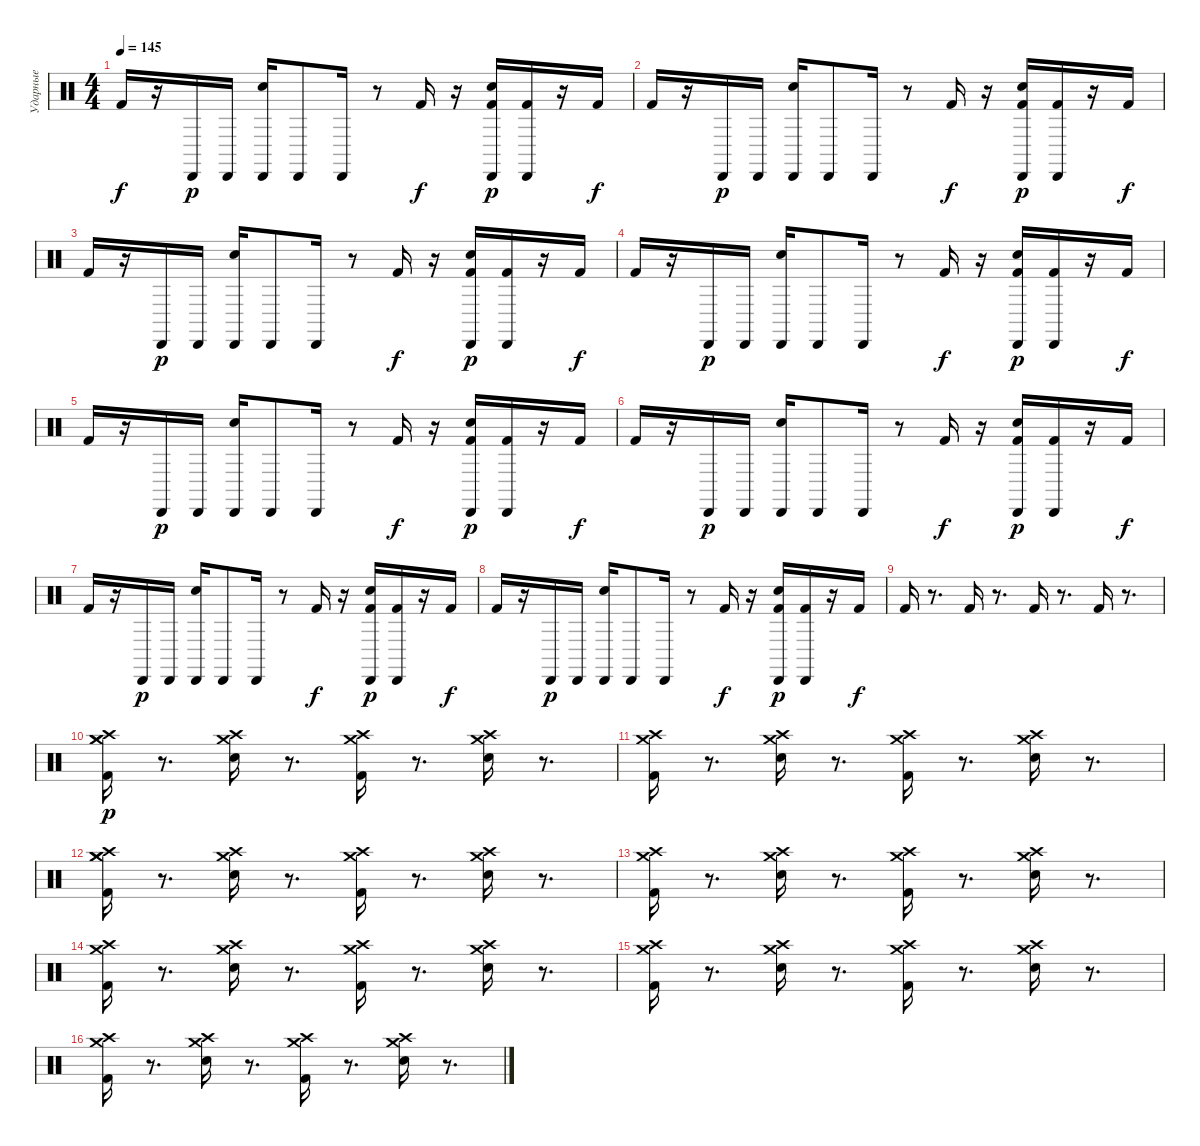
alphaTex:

\track ("Ударные" "Ударные") {instrument percussion}
\staff {score}
\articulation defaults
\ts (4 4)
\tempo 145
\clef neutral
\ks c "Kick (hit) 2".16{dy f}
r.16 "Cabasa (hit)".16{dy p} "Cabasa (hit)".16 ("Electric Snare (hit)" "Cabasa (hit)").16 "Cabasa (hit)".8 "Cabasa (hit)".16 r.8 "Kick (hit) 2".16{dy f} r.16 ("Kick (hit) 2" "Electric Snare (hit)" "Cabasa (hit)").16{dy p} ("Kick (hit) 2" "Cabasa (hit)").16 r.16 "Kick (hit) 2".16{dy f} |
"Kick (hit) 2".16 r.16 "Cabasa (hit)".16{dy p} "Cabasa (hit)".16 ("Electric Snare (hit)" "Cabasa (hit)").16 "Cabasa (hit)".8 "Cabasa (hit)".16 r.8 "Kick (hit) 2".16{dy f} r.16 ("Kick (hit) 2" "Electric Snare (hit)" "Cabasa (hit)").16{dy p} ("Kick (hit) 2" "Cabasa (hit)").16 r.16 "Kick (hit) 2".16{dy f} |
"Kick (hit) 2".16 r.16 "Cabasa (hit)".16{dy p} "Cabasa (hit)".16 ("Electric Snare (hit)" "Cabasa (hit)").16 "Cabasa (hit)".8 "Cabasa (hit)".16 r.8 "Kick (hit) 2".16{dy f} r.16 ("Kick (hit) 2" "Electric Snare (hit)" "Cabasa (hit)").16{dy p} ("Kick (hit) 2" "Cabasa (hit)").16 r.16 "Kick (hit) 2".16{dy f} |
"Kick (hit) 2".16 r.16 "Cabasa (hit)".16{dy p} "Cabasa (hit)".16 ("Electric Snare (hit)" "Cabasa (hit)").16 "Cabasa (hit)".8 "Cabasa (hit)".16 r.8 "Kick (hit) 2".16{dy f} r.16 ("Kick (hit) 2" "Electric Snare (hit)" "Cabasa (hit)").16{dy p} ("Kick (hit) 2" "Cabasa (hit)").16 r.16 "Kick (hit) 2".16{dy f} |
"Kick (hit) 2".16 r.16 "Cabasa (hit)".16{dy p} "Cabasa (hit)".16 ("Electric Snare (hit)" "Cabasa (hit)").16 "Cabasa (hit)".8 "Cabasa (hit)".16 r.8 "Kick (hit) 2".16{dy f} r.16 ("Kick (hit) 2" "Electric Snare (hit)" "Cabasa (hit)").16{dy p} ("Kick (hit) 2" "Cabasa (hit)").16 r.16 "Kick (hit) 2".16{dy f} |
"Kick (hit) 2".16 r.16 "Cabasa (hit)".16{dy p} "Cabasa (hit)".16 ("Electric Snare (hit)" "Cabasa (hit)").16 "Cabasa (hit)".8 "Cabasa (hit)".16 r.8 "Kick (hit) 2".16{dy f} r.16 ("Kick (hit) 2" "Electric Snare (hit)" "Cabasa (hit)").16{dy p} ("Kick (hit) 2" "Cabasa (hit)").16 r.16 "Kick (hit) 2".16{dy f} |
"Kick (hit) 2".16 r.16 "Cabasa (hit)".16{dy p} "Cabasa (hit)".16 ("Electric Snare (hit)" "Cabasa (hit)").16 "Cabasa (hit)".8 "Cabasa (hit)".16 r.8 "Kick (hit) 2".16{dy f} r.16 ("Kick (hit) 2" "Electric Snare (hit)" "Cabasa (hit)").16{dy p} ("Kick (hit) 2" "Cabasa (hit)").16 r.16 "Kick (hit) 2".16{dy f} |
"Kick (hit) 2".16 r.16 "Cabasa (hit)".16{dy p} "Cabasa (hit)".16 ("Electric Snare (hit)" "Cabasa (hit)").16 "Cabasa (hit)".8 "Cabasa (hit)".16 r.8 "Kick (hit) 2".16{dy f} r.16 ("Kick (hit) 2" "Electric Snare (hit)" "Cabasa (hit)").16{dy p} ("Kick (hit) 2" "Cabasa (hit)").16 r.16 "Kick (hit) 2".16{dy f} |
"Kick (hit) 2".16 r.8{d} "Kick (hit) 2".16 r.8{d} "Kick (hit) 2".16 r.8{d} "Kick (hit) 2".16 r.8{d} |
("Kick (hit) 2" "Crash high (hit)" "Crash medium (hit)" "Crash medium (hit)").16{dy p} r.8{d} ("Crash high (hit)" "Crash medium (hit)" "Electric Snare (hit)").16 r.8{d} ("Crash high (hit)" "Crash medium (hit)" "Kick (hit) 2").16 r.8{d} ("Crash high (hit)" "Crash medium (hit)" "Electric Snare (hit)").16 r.8{d} |
("Kick (hit) 2" "Crash high (hit)" "Crash medium (hit)").16 r.8{d} ("Crash high (hit)" "Crash medium (hit)" "Electric Snare (hit)").16 r.8{d} ("Crash high (hit)" "Crash medium (hit)" "Kick (hit) 2").16 r.8{d} ("Crash high (hit)" "Crash medium (hit)" "Electric Snare (hit)").16 r.8{d} |
("Kick (hit) 2" "Crash high (hit)" "Crash medium (hit)" "Crash medium (hit)").16 r.8{d} ("Crash high (hit)" "Crash medium (hit)" "Electric Snare (hit)").16 r.8{d} ("Crash high (hit)" "Crash medium (hit)" "Kick (hit) 2").16 r.8{d} ("Crash high (hit)" "Crash medium (hit)" "Electric Snare (hit)").16 r.8{d} |
("Kick (hit) 2" "Crash high (hit)" "Crash medium (hit)").16 r.8{d} ("Crash high (hit)" "Crash medium (hit)" "Electric Snare (hit)").16 r.8{d} ("Crash high (hit)" "Crash medium (hit)" "Kick (hit) 2").16 r.8{d} ("Crash high (hit)" "Crash medium (hit)" "Electric Snare (hit)").16 r.8{d} |
("Kick (hit) 2" "Crash high (hit)" "Crash medium (hit)").16 r.8{d} ("Crash high (hit)" "Crash medium (hit)" "Electric Snare (hit)").16 r.8{d} ("Crash high (hit)" "Crash medium (hit)" "Kick (hit) 2").16 r.8{d} ("Crash high (hit)" "Crash medium (hit)" "Electric Snare (hit)").16 r.8{d} |
("Kick (hit) 2" "Crash high (hit)" "Crash medium (hit)").16 r.8{d} ("Crash high (hit)" "Crash medium (hit)" "Electric Snare (hit)").16 r.8{d} ("Crash high (hit)" "Crash medium (hit)" "Kick (hit) 2").16 r.8{d} ("Crash high (hit)" "Crash medium (hit)" "Electric Snare (hit)").16 r.8{d} |
("Kick (hit) 2" "Crash high (hit)" "Crash medium (hit)").16 r.8{d} ("Crash high (hit)" "Crash medium (hit)" "Electric Snare (hit)").16 r.8{d} ("Crash high (hit)" "Crash medium (hit)" "Kick (hit) 2").16 r.8{d} ("Crash high (hit)" "Crash medium (hit)" "Electric Snare (hit)").16 r.8{d}
